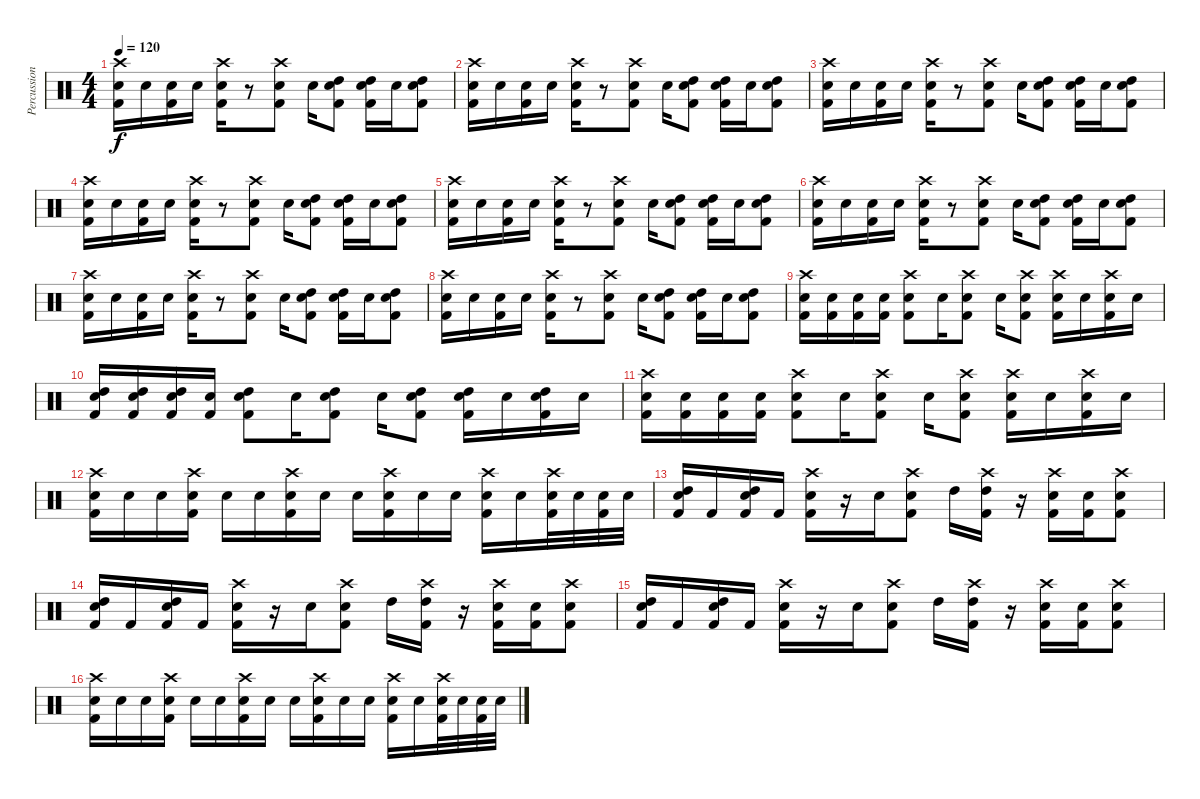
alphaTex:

\track ("Percussion" "Percussion") {instrument percussion}
\staff {score}
\articulation defaults
\ts (4 4)
\tempo 120
\clef neutral
\ks c
("Crash high (hit)" "Electric Snare (hit)" "Kick (hit) 2").16{dy f} "Electric Snare (hit)".16 ("Electric Snare (hit)" "Kick (hit) 2").16 "Electric Snare (hit)".16 ("Crash high (hit)" "Electric Snare (hit)" "Kick (hit) 2").16 r.8 ("Crash high (hit)" "Electric Snare (hit)" "Kick (hit) 2").8 "Electric Snare (hit)".16 ("High Tom (hit)" "Electric Snare (hit)" "Kick (hit) 2").8 ("High Tom (hit)" "Electric Snare (hit)" "Kick (hit) 2").16 "Electric Snare (hit)".16 ("High Tom (hit)" "Electric Snare (hit)" "Kick (hit) 2").8 |
("Crash high (hit)" "Electric Snare (hit)" "Kick (hit) 2").16 "Electric Snare (hit)".16 ("Electric Snare (hit)" "Kick (hit) 2").16 "Electric Snare (hit)".16 ("Crash high (hit)" "Electric Snare (hit)" "Kick (hit) 2").16 r.8 ("Crash high (hit)" "Electric Snare (hit)" "Kick (hit) 2").8 "Electric Snare (hit)".16 ("High Tom (hit)" "Electric Snare (hit)" "Kick (hit) 2").8 ("High Tom (hit)" "Electric Snare (hit)" "Kick (hit) 2").16 "Electric Snare (hit)".16 ("High Tom (hit)" "Electric Snare (hit)" "Kick (hit) 2").8 |
("Crash high (hit)" "Electric Snare (hit)" "Kick (hit) 2").16 "Electric Snare (hit)".16 ("Electric Snare (hit)" "Kick (hit) 2").16 "Electric Snare (hit)".16 ("Crash high (hit)" "Electric Snare (hit)" "Kick (hit) 2").16 r.8 ("Crash high (hit)" "Electric Snare (hit)" "Kick (hit) 2").8 "Electric Snare (hit)".16 ("High Tom (hit)" "Electric Snare (hit)" "Kick (hit) 2").8 ("High Tom (hit)" "Electric Snare (hit)" "Kick (hit) 2").16 "Electric Snare (hit)".16 ("High Tom (hit)" "Electric Snare (hit)" "Kick (hit) 2").8 |
("Crash high (hit)" "Electric Snare (hit)" "Kick (hit) 2").16 "Electric Snare (hit)".16 ("Electric Snare (hit)" "Kick (hit) 2").16 "Electric Snare (hit)".16 ("Crash high (hit)" "Electric Snare (hit)" "Kick (hit) 2").16 r.8 ("Crash high (hit)" "Electric Snare (hit)" "Kick (hit) 2").8 "Electric Snare (hit)".16 ("High Tom (hit)" "Electric Snare (hit)" "Kick (hit) 2").8 ("High Tom (hit)" "Electric Snare (hit)" "Kick (hit) 2").16 "Electric Snare (hit)".16 ("High Tom (hit)" "Electric Snare (hit)" "Kick (hit) 2").8 |
("Crash high (hit)" "Electric Snare (hit)" "Kick (hit) 2").16 "Electric Snare (hit)".16 ("Electric Snare (hit)" "Kick (hit) 2").16 "Electric Snare (hit)".16 ("Crash high (hit)" "Electric Snare (hit)" "Kick (hit) 2").16 r.8 ("Crash high (hit)" "Electric Snare (hit)" "Kick (hit) 2").8 "Electric Snare (hit)".16 ("High Tom (hit)" "Electric Snare (hit)" "Kick (hit) 2").8 ("High Tom (hit)" "Electric Snare (hit)" "Kick (hit) 2").16 "Electric Snare (hit)".16 ("High Tom (hit)" "Electric Snare (hit)" "Kick (hit) 2").8 |
("Crash high (hit)" "Electric Snare (hit)" "Kick (hit) 2").16 "Electric Snare (hit)".16 ("Electric Snare (hit)" "Kick (hit) 2").16 "Electric Snare (hit)".16 ("Crash high (hit)" "Electric Snare (hit)" "Kick (hit) 2").16 r.8 ("Crash high (hit)" "Electric Snare (hit)" "Kick (hit) 2").8 "Electric Snare (hit)".16 ("High Tom (hit)" "Electric Snare (hit)" "Kick (hit) 2").8 ("High Tom (hit)" "Electric Snare (hit)" "Kick (hit) 2").16 "Electric Snare (hit)".16 ("High Tom (hit)" "Electric Snare (hit)" "Kick (hit) 2").8 |
("Crash high (hit)" "Electric Snare (hit)" "Kick (hit) 2").16 "Electric Snare (hit)".16 ("Electric Snare (hit)" "Kick (hit) 2").16 "Electric Snare (hit)".16 ("Crash high (hit)" "Electric Snare (hit)" "Kick (hit) 2").16 r.8 ("Crash high (hit)" "Electric Snare (hit)" "Kick (hit) 2").8 "Electric Snare (hit)".16 ("High Tom (hit)" "Electric Snare (hit)" "Kick (hit) 2").8 ("High Tom (hit)" "Electric Snare (hit)" "Kick (hit) 2").16 "Electric Snare (hit)".16 ("High Tom (hit)" "Electric Snare (hit)" "Kick (hit) 2").8 |
("Crash high (hit)" "Electric Snare (hit)" "Kick (hit) 2").16 "Electric Snare (hit)".16 ("Electric Snare (hit)" "Kick (hit) 2").16 "Electric Snare (hit)".16 ("Crash high (hit)" "Electric Snare (hit)" "Kick (hit) 2").16 r.8 ("Crash high (hit)" "Electric Snare (hit)" "Kick (hit) 2").8 "Electric Snare (hit)".16 ("High Tom (hit)" "Electric Snare (hit)" "Kick (hit) 2").8 ("High Tom (hit)" "Electric Snare (hit)" "Kick (hit) 2").16 "Electric Snare (hit)".16 ("High Tom (hit)" "Electric Snare (hit)" "Kick (hit) 2").8 |
("Crash high (hit)" "Electric Snare (hit)" "Kick (hit) 2").16 ("Electric Snare (hit)" "Kick (hit) 2").16 ("Electric Snare (hit)" "Kick (hit) 2").16 ("Electric Snare (hit)" "Kick (hit) 2").16 ("Crash high (hit)" "Electric Snare (hit)" "Kick (hit) 2").8 "Electric Snare (hit)".16 ("Crash high (hit)" "Electric Snare (hit)" "Kick (hit) 2").8 "Electric Snare (hit)".16 ("Crash high (hit)" "Electric Snare (hit)" "Kick (hit) 2").8 ("Crash high (hit)" "Electric Snare (hit)" "Kick (hit) 2").16 "Electric Snare (hit)".16 ("Crash high (hit)" "Electric Snare (hit)" "Kick (hit) 2").16 "Electric Snare (hit)".16 |
("High Tom (hit)" "Electric Snare (hit)" "Kick (hit) 2").16 ("High Tom (hit)" "Electric Snare (hit)" "Kick (hit) 2").16 ("High Tom (hit)" "Electric Snare (hit)" "Kick (hit) 2").16 ("Electric Snare (hit)" "Kick (hit) 2").16 ("High Tom (hit)" "Electric Snare (hit)" "Kick (hit) 2").8 "Electric Snare (hit)".16 ("High Tom (hit)" "Electric Snare (hit)" "Kick (hit) 2").8 "Electric Snare (hit)".16 ("High Tom (hit)" "Electric Snare (hit)" "Kick (hit) 2").8 ("High Tom (hit)" "Electric Snare (hit)" "Kick (hit) 2").16 "Electric Snare (hit)".16 ("High Tom (hit)" "Electric Snare (hit)" "Kick (hit) 2").16 "Electric Snare (hit)".16 |
("Crash high (hit)" "Electric Snare (hit)" "Kick (hit) 2").16 ("Electric Snare (hit)" "Kick (hit) 2").16 ("Electric Snare (hit)" "Kick (hit) 2").16 ("Electric Snare (hit)" "Kick (hit) 2").16 ("Crash high (hit)" "Electric Snare (hit)" "Kick (hit) 2").8 "Electric Snare (hit)".16 ("Crash high (hit)" "Electric Snare (hit)" "Kick (hit) 2").8 "Electric Snare (hit)".16 ("Crash high (hit)" "Electric Snare (hit)" "Kick (hit) 2").8 ("Crash high (hit)" "Electric Snare (hit)" "Kick (hit) 2").16 "Electric Snare (hit)".16 ("Crash high (hit)" "Electric Snare (hit)" "Kick (hit) 2").16 "Electric Snare (hit)".16 |
("Crash high (hit)" "Electric Snare (hit)" "Kick (hit) 2").16 "Electric Snare (hit)".16 "Electric Snare (hit)".16 ("Crash high (hit)" "Electric Snare (hit)" "Kick (hit) 2").16 "Electric Snare (hit)".16 "Electric Snare (hit)".16 ("Crash high (hit)" "Electric Snare (hit)" "Kick (hit) 2").16 "Electric Snare (hit)".16 "Electric Snare (hit)".16 ("Crash high (hit)" "Electric Snare (hit)" "Kick (hit) 2").16 "Electric Snare (hit)".16 "Electric Snare (hit)".16 ("Crash high (hit)" "Electric Snare (hit)" "Kick (hit) 2").16 "Electric Snare (hit)".16 ("Crash high (hit)" "Electric Snare (hit)" "Kick (hit) 2").32 "Electric Snare (hit)".32 ("Electric Snare (hit)" "Kick (hit) 2").32 "Electric Snare (hit)".32 |
("High Tom (hit)" "Electric Snare (hit)" "Kick (hit) 2").16 "Kick (hit) 2".16 ("High Tom (hit)" "Electric Snare (hit)" "Kick (hit) 2").16 "Kick (hit) 2".16 ("Crash high (hit)" "Electric Snare (hit)" "Kick (hit) 2").16 r.16 "Electric Snare (hit)".16 ("Crash high (hit)" "Electric Snare (hit)" "Kick (hit) 2").8 "High Tom (hit)".16 ("Crash high (hit)" "High Tom (hit)" "Kick (hit) 2").16 r.16 ("Crash high (hit)" "Electric Snare (hit)" "Kick (hit) 2").16 ("Electric Snare (hit)" "Kick (hit) 2").16 ("Crash high (hit)" "Electric Snare (hit)" "Kick (hit) 2").8 |
("High Tom (hit)" "Electric Snare (hit)" "Kick (hit) 2").16 "Kick (hit) 2".16 ("High Tom (hit)" "Electric Snare (hit)" "Kick (hit) 2").16 "Kick (hit) 2".16 ("Crash high (hit)" "Electric Snare (hit)" "Kick (hit) 2").16 r.16 "Electric Snare (hit)".16 ("Crash high (hit)" "Electric Snare (hit)" "Kick (hit) 2").8 "High Tom (hit)".16 ("Crash high (hit)" "High Tom (hit)" "Kick (hit) 2").16 r.16 ("Crash high (hit)" "Electric Snare (hit)" "Kick (hit) 2").16 ("Electric Snare (hit)" "Kick (hit) 2").16 ("Crash high (hit)" "Electric Snare (hit)" "Kick (hit) 2").8 |
("High Tom (hit)" "Electric Snare (hit)" "Kick (hit) 2").16 "Kick (hit) 2".16 ("High Tom (hit)" "Electric Snare (hit)" "Kick (hit) 2").16 "Kick (hit) 2".16 ("Crash high (hit)" "Electric Snare (hit)" "Kick (hit) 2").16 r.16 "Electric Snare (hit)".16 ("Crash high (hit)" "Electric Snare (hit)" "Kick (hit) 2").8 "High Tom (hit)".16 ("Crash high (hit)" "High Tom (hit)" "Kick (hit) 2").16 r.16 ("Crash high (hit)" "Electric Snare (hit)" "Kick (hit) 2").16 ("Electric Snare (hit)" "Kick (hit) 2").16 ("Crash high (hit)" "Electric Snare (hit)" "Kick (hit) 2").8 |
("Crash high (hit)" "Electric Snare (hit)" "Kick (hit) 2").16 "Electric Snare (hit)".16 "Electric Snare (hit)".16 ("Crash high (hit)" "Electric Snare (hit)" "Kick (hit) 2").16 "Electric Snare (hit)".16 "Electric Snare (hit)".16 ("Crash high (hit)" "Electric Snare (hit)" "Kick (hit) 2").16 "Electric Snare (hit)".16 "Electric Snare (hit)".16 ("Crash high (hit)" "Electric Snare (hit)" "Kick (hit) 2").16 "Electric Snare (hit)".16 "Electric Snare (hit)".16 ("Crash high (hit)" "Electric Snare (hit)" "Kick (hit) 2").16 "Electric Snare (hit)".16 ("Crash high (hit)" "Electric Snare (hit)" "Kick (hit) 2").32 "Electric Snare (hit)".32 ("Electric Snare (hit)" "Kick (hit) 2").32 "Electric Snare (hit)".32
